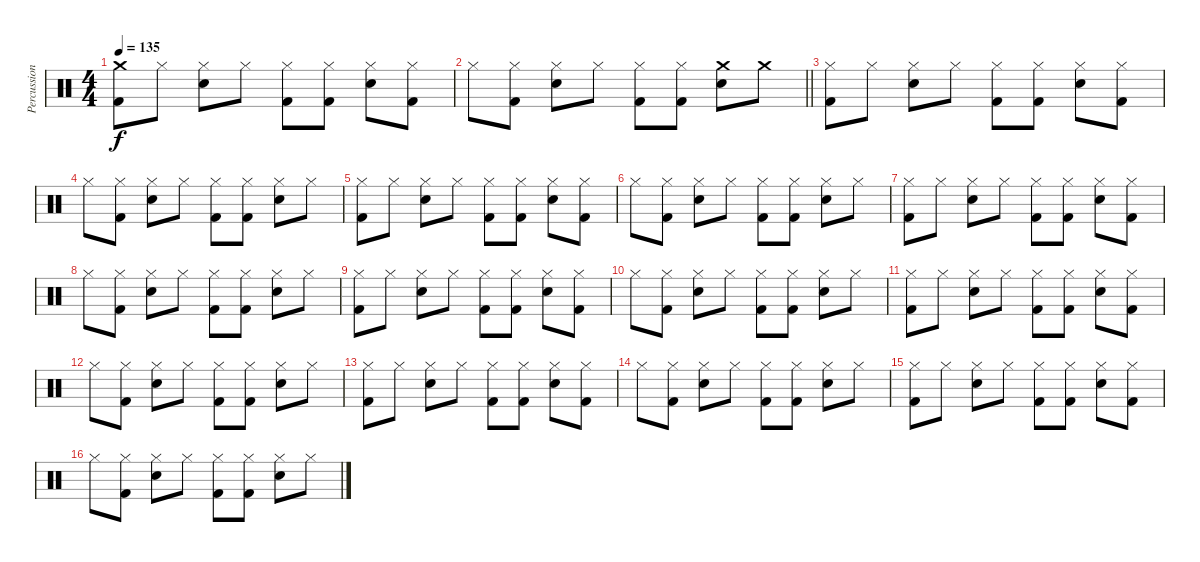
\track ("Percussion" "Percussion") {instrument percussion}
\staff {score}
\articulation defaults
\ts (4 4)
\tempo 135
\clef neutral
\ks c
("Crash medium (hit)" "Kick (hit) 2").8{dy f} "Hi-Hat (closed)".8 ("Hi-Hat (closed)" "Snare (hit) 2").8 "Hi-Hat (closed)".8 ("Hi-Hat (closed)" "Kick (hit) 2").8 ("Hi-Hat (closed)" "Kick (hit) 2").8 ("Hi-Hat (closed)" "Snare (hit) 2").8 ("Hi-Hat (closed)" "Kick (hit) 2").8 |
\barLineRight lightlight "Hi-Hat (closed)".8
("Hi-Hat (closed)" "Kick (hit) 2").8 ("Hi-Hat (closed)" "Snare (hit) 2").8 "Hi-Hat (closed)".8 ("Hi-Hat (closed)" "Kick (hit) 2").8 ("Hi-Hat (closed)" "Kick (hit) 2").8 ("Crash medium (hit)" "Snare (hit) 2").8 "Crash medium (hit)".8 |
("Hi-Hat (closed)" "Kick (hit) 2").8{volume 11} "Hi-Hat (closed)".8 ("Hi-Hat (closed)" "Snare (hit) 2").8 "Hi-Hat (closed)".8 ("Hi-Hat (closed)" "Kick (hit) 2").8 ("Hi-Hat (closed)" "Kick (hit) 2").8 ("Hi-Hat (closed)" "Snare (hit) 2").8 ("Hi-Hat (closed)" "Kick (hit) 2").8 |
"Hi-Hat (closed)".8 ("Hi-Hat (closed)" "Kick (hit) 2").8 ("Hi-Hat (closed)" "Snare (hit) 2").8 "Hi-Hat (closed)".8 ("Hi-Hat (closed)" "Kick (hit) 2").8 ("Hi-Hat (closed)" "Kick (hit) 2").8 ("Hi-Hat (closed)" "Snare (hit) 2").8 "Hi-Hat (closed)".8 |
("Hi-Hat (closed)" "Kick (hit) 2").8 "Hi-Hat (closed)".8 ("Hi-Hat (closed)" "Snare (hit) 2").8 "Hi-Hat (closed)".8 ("Hi-Hat (closed)" "Kick (hit) 2").8 ("Hi-Hat (closed)" "Kick (hit) 2").8 ("Hi-Hat (closed)" "Snare (hit) 2").8 ("Hi-Hat (closed)" "Kick (hit) 2").8 |
"Hi-Hat (closed)".8 ("Hi-Hat (closed)" "Kick (hit) 2").8 ("Hi-Hat (closed)" "Snare (hit) 2").8 "Hi-Hat (closed)".8 ("Hi-Hat (closed)" "Kick (hit) 2").8 ("Hi-Hat (closed)" "Kick (hit) 2").8 ("Hi-Hat (closed)" "Snare (hit) 2").8 "Hi-Hat (closed)".8 |
("Hi-Hat (closed)" "Kick (hit) 2").8 "Hi-Hat (closed)".8 ("Hi-Hat (closed)" "Snare (hit) 2").8 "Hi-Hat (closed)".8 ("Hi-Hat (closed)" "Kick (hit) 2").8 ("Hi-Hat (closed)" "Kick (hit) 2").8 ("Hi-Hat (closed)" "Snare (hit) 2").8 ("Hi-Hat (closed)" "Kick (hit) 2").8 |
"Hi-Hat (closed)".8 ("Hi-Hat (closed)" "Kick (hit) 2").8 ("Hi-Hat (closed)" "Snare (hit) 2").8 "Hi-Hat (closed)".8 ("Hi-Hat (closed)" "Kick (hit) 2").8 ("Hi-Hat (closed)" "Kick (hit) 2").8 ("Hi-Hat (closed)" "Snare (hit) 2").8 "Hi-Hat (closed)".8 |
("Hi-Hat (closed)" "Kick (hit) 2").8 "Hi-Hat (closed)".8 ("Hi-Hat (closed)" "Snare (hit) 2").8 "Hi-Hat (closed)".8 ("Hi-Hat (closed)" "Kick (hit) 2").8 ("Hi-Hat (closed)" "Kick (hit) 2").8 ("Hi-Hat (closed)" "Snare (hit) 2").8 ("Hi-Hat (closed)" "Kick (hit) 2").8 |
"Hi-Hat (closed)".8 ("Hi-Hat (closed)" "Kick (hit) 2").8 ("Hi-Hat (closed)" "Snare (hit) 2").8 "Hi-Hat (closed)".8 ("Hi-Hat (closed)" "Kick (hit) 2").8 ("Hi-Hat (closed)" "Kick (hit) 2").8 ("Hi-Hat (closed)" "Snare (hit) 2").8 "Hi-Hat (closed)".8 |
("Hi-Hat (closed)" "Kick (hit) 2").8 "Hi-Hat (closed)".8 ("Hi-Hat (closed)" "Snare (hit) 2").8 "Hi-Hat (closed)".8 ("Hi-Hat (closed)" "Kick (hit) 2").8 ("Hi-Hat (closed)" "Kick (hit) 2").8 ("Hi-Hat (closed)" "Snare (hit) 2").8 ("Hi-Hat (closed)" "Kick (hit) 2").8 |
"Hi-Hat (closed)".8 ("Hi-Hat (closed)" "Kick (hit) 2").8 ("Hi-Hat (closed)" "Snare (hit) 2").8 "Hi-Hat (closed)".8 ("Hi-Hat (closed)" "Kick (hit) 2").8 ("Hi-Hat (closed)" "Kick (hit) 2").8 ("Hi-Hat (closed)" "Snare (hit) 2").8 "Hi-Hat (closed)".8 |
("Hi-Hat (closed)" "Kick (hit) 2").8 "Hi-Hat (closed)".8 ("Hi-Hat (closed)" "Snare (hit) 2").8 "Hi-Hat (closed)".8 ("Hi-Hat (closed)" "Kick (hit) 2").8 ("Hi-Hat (closed)" "Kick (hit) 2").8 ("Hi-Hat (closed)" "Snare (hit) 2").8 ("Hi-Hat (closed)" "Kick (hit) 2").8 |
"Hi-Hat (closed)".8 ("Hi-Hat (closed)" "Kick (hit) 2").8 ("Hi-Hat (closed)" "Snare (hit) 2").8 "Hi-Hat (closed)".8 ("Hi-Hat (closed)" "Kick (hit) 2").8 ("Hi-Hat (closed)" "Kick (hit) 2").8 ("Hi-Hat (closed)" "Snare (hit) 2").8 "Hi-Hat (closed)".8 |
("Hi-Hat (closed)" "Kick (hit) 2").8 "Hi-Hat (closed)".8 ("Hi-Hat (closed)" "Snare (hit) 2").8 "Hi-Hat (closed)".8 ("Hi-Hat (closed)" "Kick (hit) 2").8 ("Hi-Hat (closed)" "Kick (hit) 2").8 ("Hi-Hat (closed)" "Snare (hit) 2").8 ("Hi-Hat (closed)" "Kick (hit) 2").8 |
"Hi-Hat (closed)".8 ("Hi-Hat (closed)" "Kick (hit) 2").8 ("Hi-Hat (closed)" "Snare (hit) 2").8 "Hi-Hat (closed)".8 ("Hi-Hat (closed)" "Kick (hit) 2").8 ("Hi-Hat (closed)" "Kick (hit) 2").8 ("Hi-Hat (closed)" "Snare (hit) 2").8 "Hi-Hat (closed)".8
